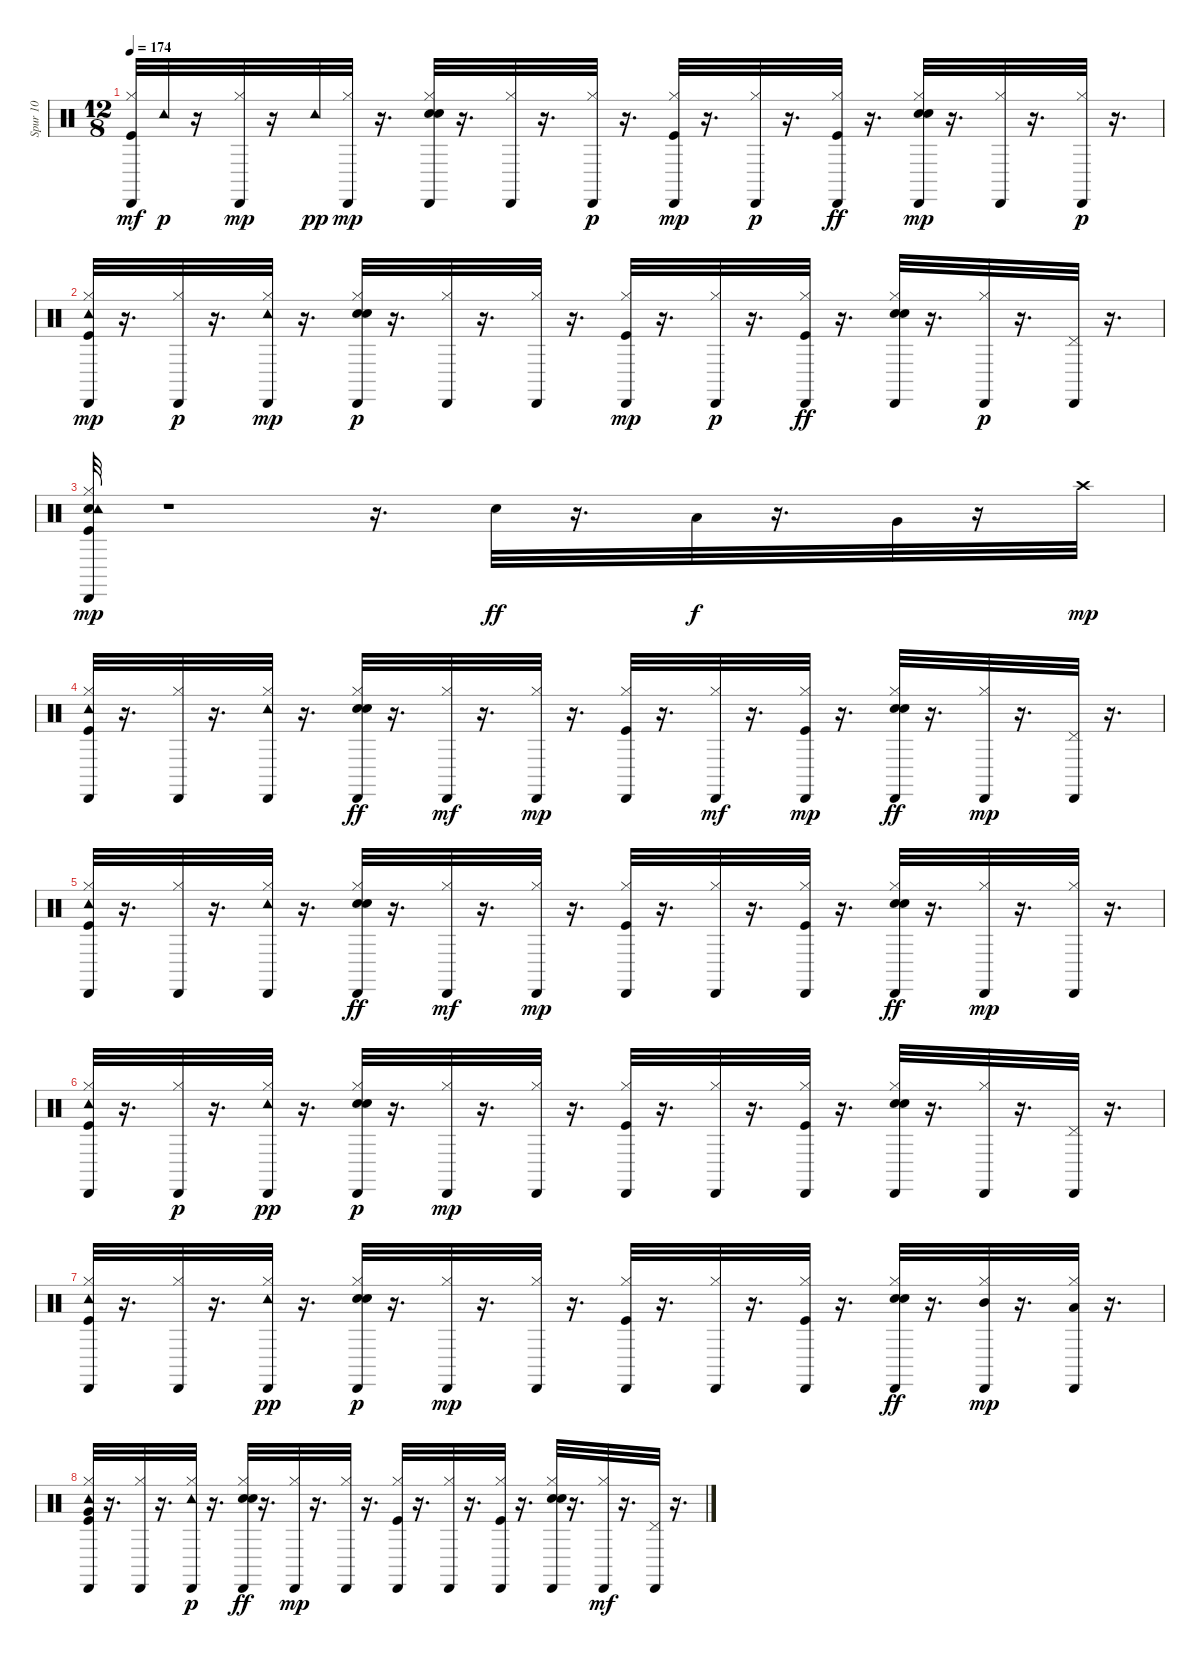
\track ("Spur 10" "Spur 10") {instrument percussion}
\staff {score}
\articulation defaults
\ts (12 8)
\tempo 174
\clef neutral
\ks c
("Kick (hit)" "Cabasa (hit)" "Hi-Hat (closed)").32{dy mf} "Tambourine (hit)".32{dy p} r.16 ("Cabasa (hit)" "Hi-Hat (closed)").32{dy mp} r.16 "Tambourine (hit)".32{dy pp} ("Cabasa (hit)" "Hi-Hat (closed)").32{dy mp} r.16{d} ("Cabasa (hit)" "Hand Clap (hit)" "Electric Snare (hit)" "Hi-Hat (closed)").32 r.16{d} ("Cabasa (hit)" "Hi-Hat (closed)").32 r.16{d} ("Cabasa (hit)" "Hi-Hat (closed)").32{dy p} r.16{d} ("Hi-Hat (closed)" "Kick (hit)" "Cabasa (hit)").32{dy mp} r.16{d} ("Hi-Hat (closed)" "Cabasa (hit)").32{dy p} r.16{d} ("Hi-Hat (closed)" "Cabasa (hit)" "Kick (hit)").32{dy ff} r.16{d} ("Hi-Hat (closed)" "Hand Clap (hit)" "Electric Snare (hit)" "Cabasa (hit)").32{dy mp} r.16{d} ("Hi-Hat (closed)" "Cabasa (hit)").32 r.16{d} ("Hi-Hat (closed)" "Cabasa (hit)").32{dy p} r.16{d} |
("Tambourine (hit)" "Hi-Hat (closed)" "Kick (hit)" "Cabasa (hit)").32{dy mp} r.16{d} ("Hi-Hat (closed)" "Cabasa (hit)").32{dy p} r.16{d} ("Tambourine (hit)" "Hi-Hat (closed)" "Cabasa (hit)").32{dy mp} r.16{d} ("Hi-Hat (closed)" "Hand Clap (hit)" "Electric Snare (hit)" "Cabasa (hit)").32{dy p} r.16{d} ("Hi-Hat (closed)" "Cabasa (hit)").32 r.16{d} ("Hi-Hat (closed)" "Cabasa (hit)").32 r.16{d} ("Hi-Hat (closed)" "Kick (hit)" "Cabasa (hit)").32{dy mp} r.16{d} ("Hi-Hat (closed)" "Cabasa (hit)").32{dy p} r.16{d} ("Hi-Hat (closed)" "Cabasa (hit)" "Kick (hit)").32{dy ff} r.16{d} ("Hi-Hat (closed)" "Hand Clap (hit)" "Cabasa (hit)" "Electric Snare (hit)").32 r.16{d} ("Hi-Hat (closed)" "Cabasa (hit)").32{dy p} r.16{d} ("Pedal Hi-Hat (hit)" "Cabasa (hit)").32 r.16{d} |
("Hi-Hat (closed)" "Electric Snare (hit)" "Kick (hit)" "Tambourine (hit)" "Cabasa (hit)").32{dy mp} r.1 r.16{d} "Snare (hit) 2".32{dy ff} r.16{d} "Low Tom (hit)".32{dy f} r.16{d} "Very Low Tom (hit)".32 r.16 "Crash high (hit)".32{dy mp} |
("Hi-Hat (closed)" "Kick (hit)" "Tambourine (hit)" "Cabasa (hit)").32 r.16{d} ("Cabasa (hit)" "Hi-Hat (closed)").32 r.16{d} ("Tambourine (hit)" "Cabasa (hit)" "Hi-Hat (closed)").32 r.16{d} ("Cabasa (hit)" "Hi-Hat (closed)" "Hand Clap (hit)" "Electric Snare (hit)").32{dy ff} r.16{d} ("Cabasa (hit)" "Hi-Hat (closed)").32{dy mf} r.16{d} ("Hi-Hat (closed)" "Cabasa (hit)").32{dy mp} r.16{d} ("Cabasa (hit)" "Hi-Hat (closed)" "Kick (hit)").32 r.16{d} ("Cabasa (hit)" "Hi-Hat (closed)").32{dy mf} r.16{d} ("Cabasa (hit)" "Hi-Hat (closed)" "Kick (hit)").32{dy mp} r.16{d} ("Hi-Hat (closed)" "Hand Clap (hit)" "Cabasa (hit)" "Electric Snare (hit)").32{dy ff} r.16{d} ("Hi-Hat (closed)" "Cabasa (hit)").32{dy mp} r.16{d} ("Pedal Hi-Hat (hit)" "Cabasa (hit)").32 r.16{d} |
("Tambourine (hit)" "Hi-Hat (closed)" "Kick (hit)" "Cabasa (hit)").32 r.16{d} ("Cabasa (hit)" "Hi-Hat (closed)").32 r.16{d} ("Tambourine (hit)" "Hi-Hat (closed)" "Cabasa (hit)").32 r.16{d} ("Electric Snare (hit)" "Cabasa (hit)" "Hi-Hat (closed)" "Hand Clap (hit)").32{dy ff} r.16{d} ("Cabasa (hit)" "Hi-Hat (closed)").32{dy mf} r.16{d} ("Hi-Hat (closed)" "Cabasa (hit)").32{dy mp} r.16{d} ("Kick (hit)" "Hi-Hat (closed)" "Cabasa (hit)").32 r.16{d} ("Cabasa (hit)" "Hi-Hat (closed)").32 r.16{d} ("Kick (hit)" "Hi-Hat (closed)" "Cabasa (hit)").32 r.16{d} ("Electric Snare (hit)" "Cabasa (hit)" "Hi-Hat (closed)" "Hand Clap (hit)").32{dy ff} r.16{d} ("Hi-Hat (closed)" "Cabasa (hit)").32{dy mp} r.16{d} ("Hi-Hat (closed)" "Cabasa (hit)").32 r.16{d} |
("Hi-Hat (closed)" "Kick (hit)" "Tambourine (hit)" "Cabasa (hit)").32 r.16{d} ("Hi-Hat (closed)" "Cabasa (hit)").32{dy p} r.16{d} ("Hi-Hat (closed)" "Cabasa (hit)" "Tambourine (hit)").32{dy pp} r.16{d} ("Hi-Hat (closed)" "Hand Clap (hit)" "Electric Snare (hit)" "Cabasa (hit)").32{dy p} r.16{d} ("Hi-Hat (closed)" "Cabasa (hit)").32{dy mp} r.16{d} ("Hi-Hat (closed)" "Cabasa (hit)").32 r.16{d} ("Hi-Hat (closed)" "Kick (hit)" "Cabasa (hit)").32 r.16{d} ("Cabasa (hit)" "Hi-Hat (closed)").32 r.16{d} ("Hi-Hat (closed)" "Cabasa (hit)" "Kick (hit)").32 r.16{d} ("Electric Snare (hit)" "Hi-Hat (closed)" "Hand Clap (hit)" "Cabasa (hit)").32 r.16{d} ("Hi-Hat (closed)" "Cabasa (hit)").32 r.16{d} ("Pedal Hi-Hat (hit)" "Cabasa (hit)").32 r.16{d} |
("Tambourine (hit)" "Hi-Hat (closed)" "Cabasa (hit)" "Kick (hit)").32 r.16{d} ("Hi-Hat (closed)" "Cabasa (hit)").32 r.16{d} ("Hi-Hat (closed)" "Cabasa (hit)" "Tambourine (hit)").32{dy pp} r.16{d} ("Hi-Hat (closed)" "Electric Snare (hit)" "Hand Clap (hit)" "Cabasa (hit)").32{dy p} r.16{d} ("Hi-Hat (closed)" "Cabasa (hit)").32{dy mp} r.16{d} ("Hi-Hat (closed)" "Cabasa (hit)").32 r.16{d} ("Kick (hit)" "Cabasa (hit)" "Hi-Hat (closed)").32 r.16{d} ("Cabasa (hit)" "Hi-Hat (closed)").32 r.16{d} ("Hi-Hat (closed)" "Kick (hit)" "Cabasa (hit)").32 r.16{d} ("Hi-Hat (closed)" "Hand Clap (hit)" "Cabasa (hit)" "Electric Snare (hit)").32{dy ff} r.16{d} ("Hi-Hat (closed)" "Cabasa (hit)" "Mid Tom (hit)").32{dy mp} r.16{d} ("Hi-Hat (closed)" "Low Tom (hit)" "Cabasa (hit)").32 r.16{d} |
("Tambourine (hit)" "Kick (hit)" "Very Low Tom (hit)" "Cabasa (hit)" "Hi-Hat (closed)").32 r.16{d} ("Cabasa (hit)" "Hi-Hat (closed)").32 r.16{d} ("Hi-Hat (closed)" "Tambourine (hit)" "Cabasa (hit)").32{dy p} r.16{d} ("Hi-Hat (closed)" "Hand Clap (hit)" "Cabasa (hit)" "Electric Snare (hit)").32{dy ff} r.16{d} ("Hi-Hat (closed)" "Cabasa (hit)").32{dy mp} r.16{d} ("Hi-Hat (closed)" "Cabasa (hit)").32 r.16{d} ("Kick (hit)" "Hi-Hat (closed)" "Cabasa (hit)").32 r.16{d} ("Cabasa (hit)" "Hi-Hat (closed)").32 r.16{d} ("Hi-Hat (closed)" "Kick (hit)" "Cabasa (hit)").32 r.16{d} ("Hi-Hat (closed)" "Hand Clap (hit)" "Electric Snare (hit)" "Cabasa (hit)").32 r.16{d} ("Cabasa (hit)" "Hi-Hat (closed)").32{dy mf} r.16{d} ("Cabasa (hit)" "Pedal Hi-Hat (hit)").32 r.16{d}
